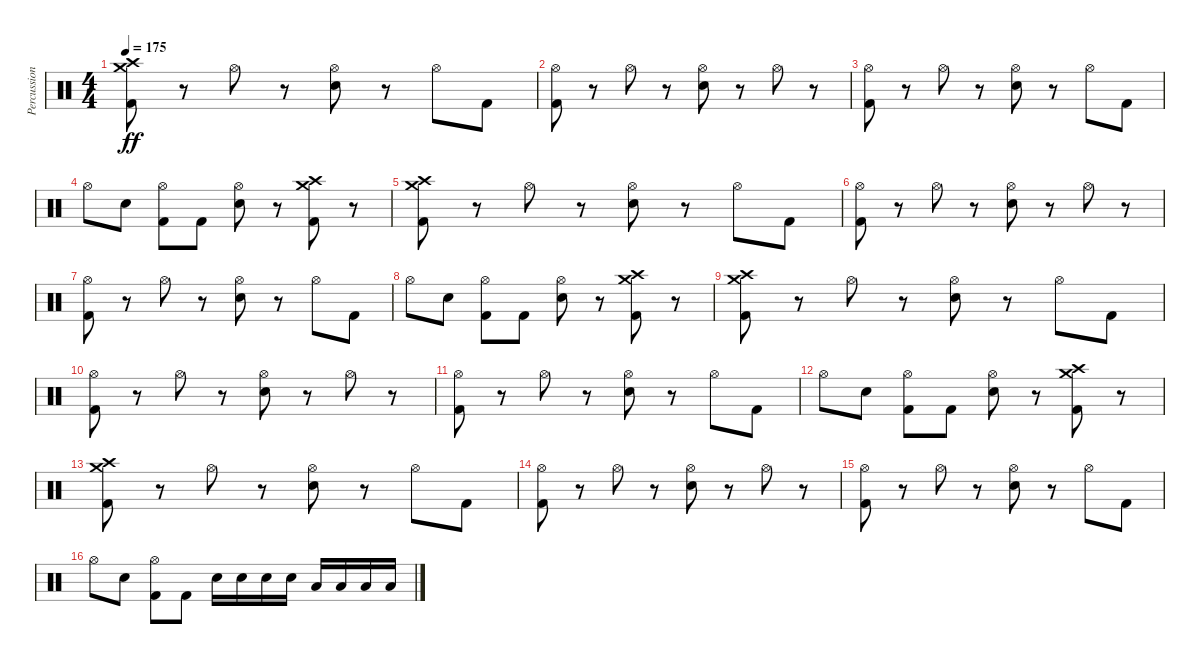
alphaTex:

\track ("Percussion" "Percussion") {instrument percussion}
\staff {score}
\articulation defaults
\ts (4 4)
\tempo 175
\clef neutral
\ks c
("Kick (hit) 2" "Crash medium (hit)" "Crash high (hit)").8{dy ff} r.8 "Hi-Hat (open)".8 r.8 ("Electric Snare (hit)" "Hi-Hat (open)").8 r.8 "Hi-Hat (open)".8 "Kick (hit) 2".8 |
("Kick (hit) 2" "Hi-Hat (open)").8 r.8 "Hi-Hat (open)".8 r.8 ("Electric Snare (hit)" "Hi-Hat (open)").8 r.8 "Hi-Hat (open)".8 r.8 |
("Kick (hit) 2" "Hi-Hat (open)").8 r.8 "Hi-Hat (open)".8 r.8 ("Electric Snare (hit)" "Hi-Hat (open)").8 r.8 "Hi-Hat (open)".8 "Kick (hit) 2".8 |
"Hi-Hat (open)".8 "Electric Snare (hit)".8 ("Kick (hit) 2" "Hi-Hat (open)").8 "Kick (hit) 2".8 ("Electric Snare (hit)" "Hi-Hat (open)").8 r.8 ("Kick (hit) 2" "Crash medium (hit)" "Crash high (hit)").8 r.8 |
("Kick (hit) 2" "Crash medium (hit)" "Crash high (hit)").8 r.8 "Hi-Hat (open)".8 r.8 ("Electric Snare (hit)" "Hi-Hat (open)").8 r.8 "Hi-Hat (open)".8 "Kick (hit) 2".8 |
("Kick (hit) 2" "Hi-Hat (open)").8 r.8 "Hi-Hat (open)".8 r.8 ("Electric Snare (hit)" "Hi-Hat (open)").8 r.8 "Hi-Hat (open)".8 r.8 |
("Kick (hit) 2" "Hi-Hat (open)").8 r.8 "Hi-Hat (open)".8 r.8 ("Electric Snare (hit)" "Hi-Hat (open)").8 r.8 "Hi-Hat (open)".8 "Kick (hit) 2".8 |
"Hi-Hat (open)".8 "Electric Snare (hit)".8 ("Kick (hit) 2" "Hi-Hat (open)").8 "Kick (hit) 2".8 ("Electric Snare (hit)" "Hi-Hat (open)").8 r.8 ("Kick (hit) 2" "Crash medium (hit)" "Crash high (hit)").8 r.8 |
("Kick (hit) 2" "Crash medium (hit)" "Crash high (hit)").8 r.8 "Hi-Hat (open)".8 r.8 ("Electric Snare (hit)" "Hi-Hat (open)").8 r.8 "Hi-Hat (open)".8 "Kick (hit) 2".8 |
("Kick (hit) 2" "Hi-Hat (open)").8 r.8 "Hi-Hat (open)".8 r.8 ("Electric Snare (hit)" "Hi-Hat (open)").8 r.8 "Hi-Hat (open)".8 r.8 |
("Kick (hit) 2" "Hi-Hat (open)").8 r.8 "Hi-Hat (open)".8 r.8 ("Electric Snare (hit)" "Hi-Hat (open)").8 r.8 "Hi-Hat (open)".8 "Kick (hit) 2".8 |
"Hi-Hat (open)".8 "Electric Snare (hit)".8 ("Kick (hit) 2" "Hi-Hat (open)").8 "Kick (hit) 2".8 ("Electric Snare (hit)" "Hi-Hat (open)").8 r.8 ("Kick (hit) 2" "Crash medium (hit)" "Crash high (hit)").8 r.8 |
("Kick (hit) 2" "Crash medium (hit)" "Crash high (hit)").8 r.8 "Hi-Hat (open)".8 r.8 ("Electric Snare (hit)" "Hi-Hat (open)").8 r.8 "Hi-Hat (open)".8 "Kick (hit) 2".8 |
("Kick (hit) 2" "Hi-Hat (open)").8 r.8 "Hi-Hat (open)".8 r.8 ("Electric Snare (hit)" "Hi-Hat (open)").8 r.8 "Hi-Hat (open)".8 r.8 |
("Kick (hit) 2" "Hi-Hat (open)").8 r.8 "Hi-Hat (open)".8 r.8 ("Electric Snare (hit)" "Hi-Hat (open)").8 r.8 "Hi-Hat (open)".8 "Kick (hit) 2".8 |
"Hi-Hat (open)".8 "Electric Snare (hit)".8 ("Kick (hit) 2" "Hi-Hat (open)").8 "Kick (hit) 2".8 "Electric Snare (hit)".16 "Electric Snare (hit)".16 "Electric Snare (hit)".16 "Electric Snare (hit)".16 "Low Floor Tom (hit)".16 "Low Floor Tom (hit)".16 "Low Floor Tom (hit)".16 "Low Floor Tom (hit)".16
